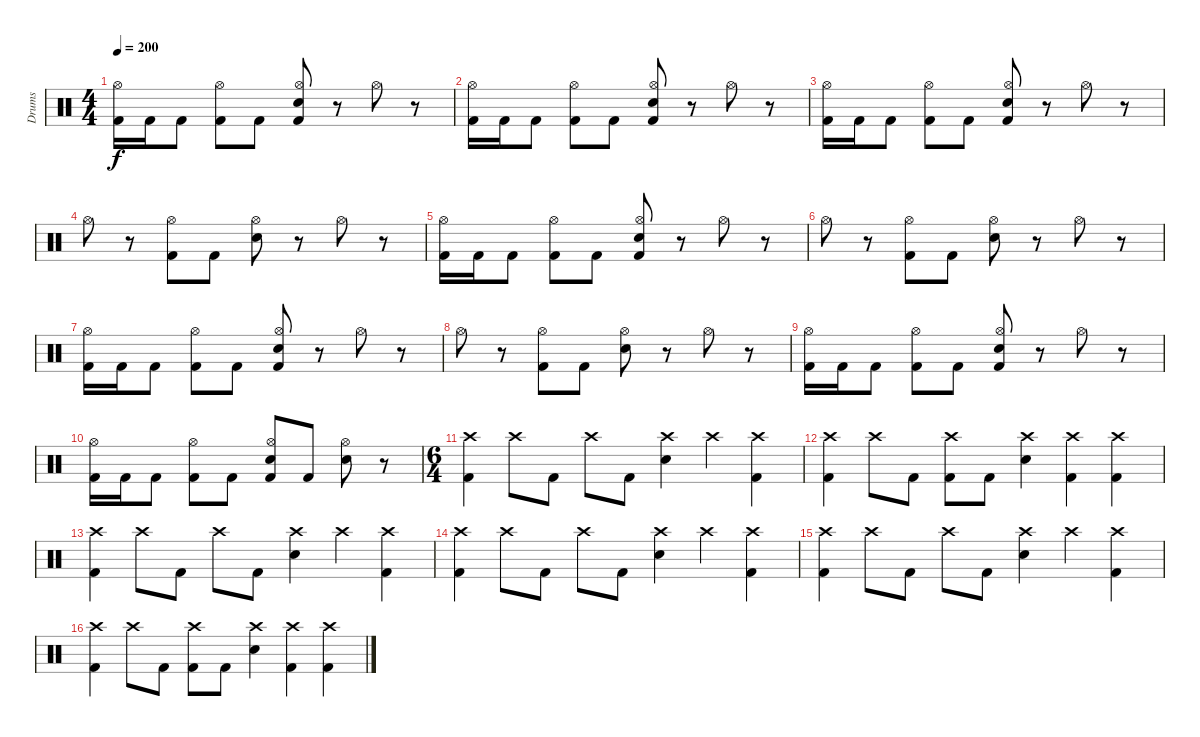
\track ("Drums" "Drums") {instrument percussion}
\staff {score}
\articulation defaults
\ts (4 4)
\tempo 200
\clef neutral
\ks c
("Kick (hit) 2" "Hi-Hat (open)").16{dy f} "Kick (hit) 2".16 "Kick (hit) 2".8 ("Kick (hit) 2" "Hi-Hat (open)").8 "Kick (hit) 2".8 ("Kick (hit) 2" "Electric Snare (hit)" "Hi-Hat (open)").8 r.8 "Hi-Hat (open)".8 r.8 |
("Kick (hit) 2" "Hi-Hat (open)").16 "Kick (hit) 2".16 "Kick (hit) 2".8 ("Kick (hit) 2" "Hi-Hat (open)").8 "Kick (hit) 2".8 ("Kick (hit) 2" "Electric Snare (hit)" "Hi-Hat (open)").8 r.8 "Hi-Hat (open)".8 r.8 |
("Kick (hit) 2" "Hi-Hat (open)").16 "Kick (hit) 2".16 "Kick (hit) 2".8 ("Kick (hit) 2" "Hi-Hat (open)").8 "Kick (hit) 2".8 ("Kick (hit) 2" "Electric Snare (hit)" "Hi-Hat (open)").8 r.8 "Hi-Hat (open)".8 r.8 |
"Hi-Hat (open)".8 r.8 ("Kick (hit) 2" "Hi-Hat (open)").8 "Kick (hit) 2".8 ("Electric Snare (hit)" "Hi-Hat (open)").8 r.8 "Hi-Hat (open)".8 r.8 |
("Kick (hit) 2" "Hi-Hat (open)").16 "Kick (hit) 2".16 "Kick (hit) 2".8 ("Kick (hit) 2" "Hi-Hat (open)").8 "Kick (hit) 2".8 ("Kick (hit) 2" "Electric Snare (hit)" "Hi-Hat (open)").8 r.8 "Hi-Hat (open)".8 r.8 |
"Hi-Hat (open)".8 r.8 ("Kick (hit) 2" "Hi-Hat (open)").8 "Kick (hit) 2".8 ("Electric Snare (hit)" "Hi-Hat (open)").8 r.8 "Hi-Hat (open)".8 r.8 |
("Kick (hit) 2" "Hi-Hat (open)").16 "Kick (hit) 2".16 "Kick (hit) 2".8 ("Kick (hit) 2" "Hi-Hat (open)").8 "Kick (hit) 2".8 ("Kick (hit) 2" "Electric Snare (hit)" "Hi-Hat (open)").8 r.8 "Hi-Hat (open)".8 r.8 |
"Hi-Hat (open)".8 r.8 ("Kick (hit) 2" "Hi-Hat (open)").8 "Kick (hit) 2".8 ("Electric Snare (hit)" "Hi-Hat (open)").8 r.8 "Hi-Hat (open)".8 r.8 |
("Kick (hit) 2" "Hi-Hat (open)").16 "Kick (hit) 2".16 "Kick (hit) 2".8 ("Kick (hit) 2" "Hi-Hat (open)").8 "Kick (hit) 2".8 ("Kick (hit) 2" "Electric Snare (hit)" "Hi-Hat (open)").8 r.8 "Hi-Hat (open)".8 r.8 |
("Kick (hit) 2" "Hi-Hat (open)").16 "Kick (hit) 2".16 "Kick (hit) 2".8 ("Kick (hit) 2" "Hi-Hat (open)").8 "Kick (hit) 2".8 ("Kick (hit) 2" "Electric Snare (hit)" "Hi-Hat (open)").8 "Kick (hit) 2".8 ("Electric Snare (hit)" "Hi-Hat (open)").8 r.8 |
\ts (6 4)
("Crash high (hit)" "Kick (hit) 2").4 "Crash high (hit)".8 "Kick (hit) 2".8 "Crash high (hit)".8 "Kick (hit) 2".8 ("Crash high (hit)" "Electric Snare (hit)").4 "Crash high (hit)".4 ("Kick (hit) 2" "Crash high (hit)").4 |
("Crash high (hit)" "Kick (hit) 2").4 "Crash high (hit)".8 "Kick (hit) 2".8 ("Crash high (hit)" "Kick (hit) 2").8 "Kick (hit) 2".8 ("Electric Snare (hit)" "Crash high (hit)").4 ("Kick (hit) 2" "Crash high (hit)").4 ("Kick (hit) 2" "Crash high (hit)").4 |
("Crash high (hit)" "Kick (hit) 2").4 "Crash high (hit)".8 "Kick (hit) 2".8 "Crash high (hit)".8 "Kick (hit) 2".8 ("Crash high (hit)" "Electric Snare (hit)").4 "Crash high (hit)".4 ("Kick (hit) 2" "Crash high (hit)").4 |
("Crash high (hit)" "Kick (hit) 2").4 "Crash high (hit)".8 "Kick (hit) 2".8 "Crash high (hit)".8 "Kick (hit) 2".8 ("Crash high (hit)" "Electric Snare (hit)").4 "Crash high (hit)".4 ("Kick (hit) 2" "Crash high (hit)").4 |
("Crash high (hit)" "Kick (hit) 2").4 "Crash high (hit)".8 "Kick (hit) 2".8 "Crash high (hit)".8 "Kick (hit) 2".8 ("Crash high (hit)" "Electric Snare (hit)").4 "Crash high (hit)".4 ("Kick (hit) 2" "Crash high (hit)").4 |
("Crash high (hit)" "Kick (hit) 2").4 "Crash high (hit)".8 "Kick (hit) 2".8 ("Crash high (hit)" "Kick (hit) 2").8 "Kick (hit) 2".8 ("Electric Snare (hit)" "Crash high (hit)").4 ("Kick (hit) 2" "Crash high (hit)").4 ("Kick (hit) 2" "Crash high (hit)").4
